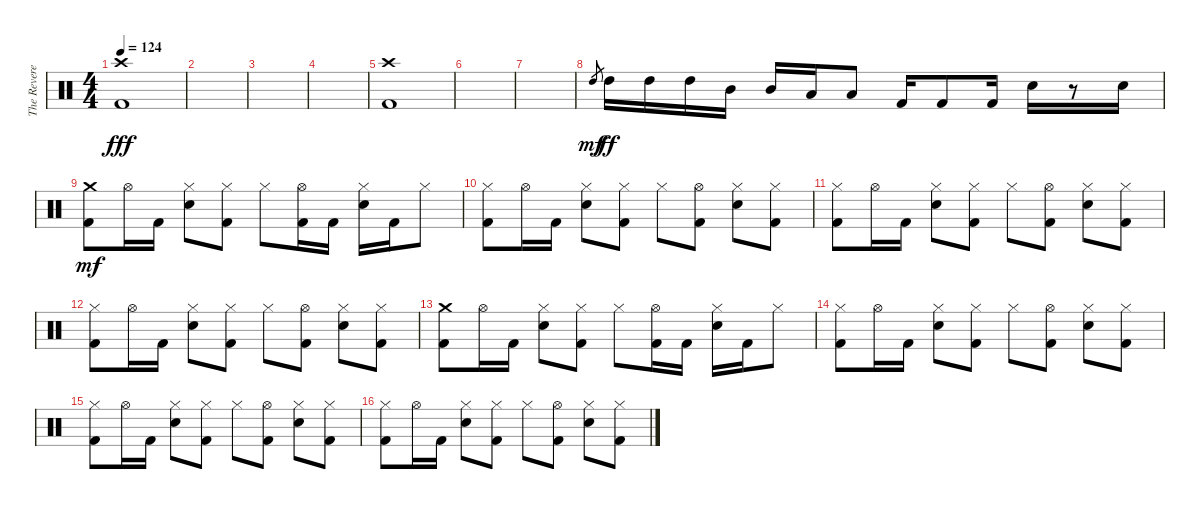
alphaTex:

\track ("The Reverend" "The Revere") {instrument percussion}
\staff {score}
\articulation defaults
\ts (4 4)
\tempo 124
\clef neutral
\ks c
("Crash high (hit)" "Kick (hit) 2").1{dy fff} |
|
|
|
("Crash high (hit)" "Kick (hit) 2").1 |
|
|
"High Tom (hit)".8{gr dy mf} "High Tom (hit)".16{dy ff} "High Tom (hit)".16 "High Tom (hit)".16 "Mid Tom (hit)".16 "Mid Tom (hit)".16 "Low Tom (hit)".16 "Low Tom (hit)".8 "Kick (hit) 2".16 "Kick (hit) 2".8 "Kick (hit) 2".16 "Electric Snare (hit)".16 r.8 "Electric Snare (hit)".16 |
("Crash medium (hit)" "Kick (hit) 2").8{dy mf} "Hi-Hat (open)".16 "Kick (hit) 2".16 ("Hi-Hat (closed)" "Electric Snare (hit)").8 ("Hi-Hat (closed)" "Kick (hit) 2").8 "Hi-Hat (closed)".8 ("Hi-Hat (open)" "Kick (hit) 2").16 "Kick (hit) 2".16 ("Hi-Hat (closed)" "Electric Snare (hit)").16 "Kick (hit) 2".16 "Hi-Hat (closed)".8 |
("Hi-Hat (closed)" "Kick (hit) 2").8 "Hi-Hat (open)".16 "Kick (hit) 2".16 ("Hi-Hat (closed)" "Electric Snare (hit)").8 ("Hi-Hat (closed)" "Kick (hit) 2").8 "Hi-Hat (closed)".8 ("Hi-Hat (open)" "Kick (hit) 2").8 ("Hi-Hat (closed)" "Electric Snare (hit)").8 ("Hi-Hat (closed)" "Kick (hit) 2").8 |
("Hi-Hat (closed)" "Kick (hit) 2").8 "Hi-Hat (open)".16 "Kick (hit) 2".16 ("Hi-Hat (closed)" "Electric Snare (hit)").8 ("Hi-Hat (closed)" "Kick (hit) 2").8 "Hi-Hat (closed)".8 ("Hi-Hat (open)" "Kick (hit) 2").8 ("Hi-Hat (closed)" "Electric Snare (hit)").8 ("Hi-Hat (closed)" "Kick (hit) 2").8 |
("Hi-Hat (closed)" "Kick (hit) 2").8 "Hi-Hat (open)".16 "Kick (hit) 2".16 ("Hi-Hat (closed)" "Electric Snare (hit)").8 ("Hi-Hat (closed)" "Kick (hit) 2").8 "Hi-Hat (closed)".8 ("Hi-Hat (open)" "Kick (hit) 2").8 ("Hi-Hat (closed)" "Electric Snare (hit)").8 ("Hi-Hat (closed)" "Kick (hit) 2").8 |
("Crash medium (hit)" "Kick (hit) 2").8 "Hi-Hat (open)".16 "Kick (hit) 2".16 ("Hi-Hat (closed)" "Electric Snare (hit)").8 ("Hi-Hat (closed)" "Kick (hit) 2").8 "Hi-Hat (closed)".8 ("Hi-Hat (open)" "Kick (hit) 2").16 "Kick (hit) 2".16 ("Hi-Hat (closed)" "Electric Snare (hit)").16 "Kick (hit) 2".16 "Hi-Hat (closed)".8 |
("Hi-Hat (closed)" "Kick (hit) 2").8 "Hi-Hat (open)".16 "Kick (hit) 2".16 ("Hi-Hat (closed)" "Electric Snare (hit)").8 ("Hi-Hat (closed)" "Kick (hit) 2").8 "Hi-Hat (closed)".8 ("Hi-Hat (open)" "Kick (hit) 2").8 ("Hi-Hat (closed)" "Electric Snare (hit)").8 ("Hi-Hat (closed)" "Kick (hit) 2").8 |
("Hi-Hat (closed)" "Kick (hit) 2").8 "Hi-Hat (open)".16 "Kick (hit) 2".16 ("Hi-Hat (closed)" "Electric Snare (hit)").8 ("Hi-Hat (closed)" "Kick (hit) 2").8 "Hi-Hat (closed)".8 ("Hi-Hat (open)" "Kick (hit) 2").8 ("Hi-Hat (closed)" "Electric Snare (hit)").8 ("Hi-Hat (closed)" "Kick (hit) 2").8 |
("Hi-Hat (closed)" "Kick (hit) 2").8 "Hi-Hat (open)".16 "Kick (hit) 2".16 ("Hi-Hat (closed)" "Electric Snare (hit)").8 ("Hi-Hat (closed)" "Kick (hit) 2").8 "Hi-Hat (closed)".8 ("Hi-Hat (open)" "Kick (hit) 2").8 ("Hi-Hat (closed)" "Electric Snare (hit)").8 ("Hi-Hat (closed)" "Kick (hit) 2").8
